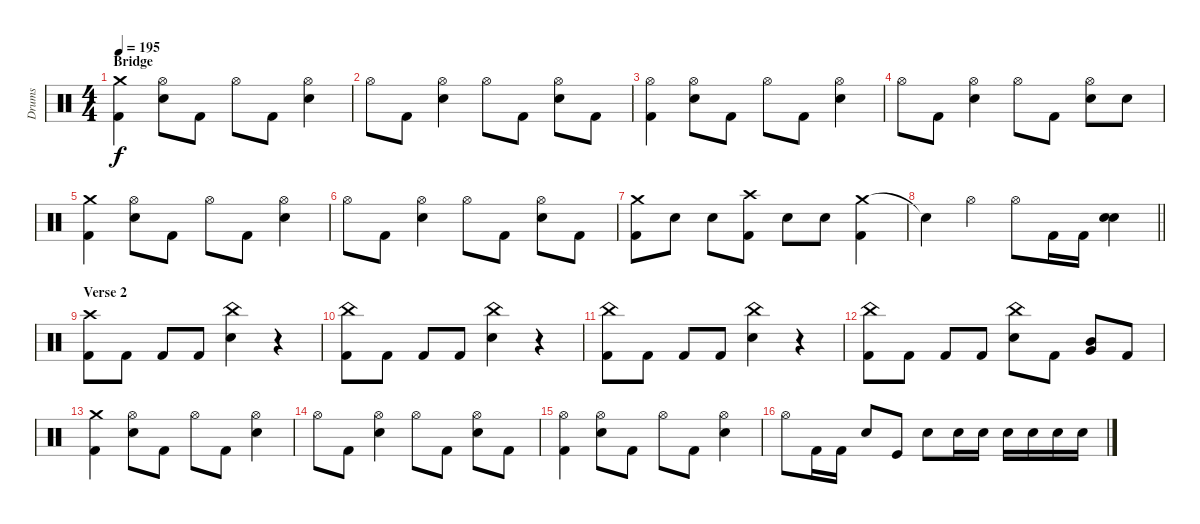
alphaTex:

\track ("Drums" "Drums") {instrument percussion}
\staff {score}
\articulation defaults
\ts (4 4)
\section ("" "Bridge")
\tempo 195
\clef neutral
\ks c
("Crash medium (hit)" "Kick (hit) 2").4{dy f} ("Hi-Hat (open)" "Snare (hit) 2").8 "Kick (hit) 2".8 "Hi-Hat (open)".8 "Kick (hit) 2".8 ("Hi-Hat (open)" "Snare (hit) 2").4 |
"Hi-Hat (open)".8 "Kick (hit) 2".8 ("Hi-Hat (open)" "Snare (hit) 2").4 "Hi-Hat (open)".8 "Kick (hit) 2".8 ("Hi-Hat (open)" "Snare (hit) 2").8 "Kick (hit) 2".8 |
("Hi-Hat (open)" "Kick (hit) 2").4 ("Hi-Hat (open)" "Snare (hit) 2").8 "Kick (hit) 2".8 "Hi-Hat (open)".8 "Kick (hit) 2".8 ("Hi-Hat (open)" "Snare (hit) 2").4 |
"Hi-Hat (open)".8 "Kick (hit) 2".8 ("Hi-Hat (open)" "Snare (hit) 2").4 "Hi-Hat (open)".8 "Kick (hit) 2".8 ("Hi-Hat (open)" "Snare (hit) 2").8 "Snare (hit) 2".8 |
("Crash medium (hit)" "Kick (hit) 2").4 ("Hi-Hat (open)" "Snare (hit) 2").8 "Kick (hit) 2".8 "Hi-Hat (open)".8 "Kick (hit) 2".8 ("Hi-Hat (open)" "Snare (hit) 2").4 |
"Hi-Hat (open)".8 "Kick (hit) 2".8 ("Hi-Hat (open)" "Snare (hit) 2").4 "Hi-Hat (open)".8 "Kick (hit) 2".8 ("Hi-Hat (open)" "Snare (hit) 2").8 "Kick (hit) 2".8 |
("Crash medium (hit)" "Kick (hit) 2").8 "Snare (hit) 2".8 "Snare (hit) 2".8 ("Crash high (hit)" "Kick (hit) 2").8 "Snare (hit) 2".8 "Snare (hit) 2".8 ("Crash medium (hit)" "Kick (hit) 2").4 |
\barLineRight lightlight "Snare (hit)"{t}.4 "Hi-Hat (open)".4 "Hi-Hat (open)".8 "Kick (hit) 2".16 "Kick (hit) 2".16
("Snare (hit) 2" "Snare (hit) 2").4 |
\section ("" "Verse 2")
("Crash high (hit)" "Kick (hit) 2").8 "Kick (hit) 2".8 "Kick (hit) 2".8 "Kick (hit) 2".8 ("China (hit)" "Snare (hit) 2").4 r.4 |
("China (hit)" "Kick (hit) 2").8 "Kick (hit) 2".8 "Kick (hit) 2".8 "Kick (hit) 2".8 ("China (hit)" "Snare (hit) 2").4 r.4 |
("China (hit)" "Kick (hit) 2").8 "Kick (hit) 2".8 "Kick (hit) 2".8 "Kick (hit) 2".8 ("China (hit)" "Snare (hit) 2").4 r.4 |
("China (hit)" "Kick (hit) 2").8 "Kick (hit) 2".8 "Kick (hit) 2".8 "Kick (hit) 2".8 ("China (hit)" "Snare (hit) 2").8 "Kick (hit) 2".8 ("Mid Tom (hit)" "Very Low Tom (hit)").8 "Kick (hit) 2".8 |
("Crash medium (hit)" "Kick (hit) 2").4 ("Hi-Hat (open)" "Snare (hit) 2").8 "Kick (hit) 2".8 "Hi-Hat (open)".8 "Kick (hit) 2".8 ("Hi-Hat (open)" "Snare (hit) 2").4 |
"Hi-Hat (open)".8 "Kick (hit) 2".8 ("Hi-Hat (open)" "Snare (hit) 2").4 "Hi-Hat (open)".8 "Kick (hit) 2".8 ("Hi-Hat (open)" "Snare (hit) 2").8 "Kick (hit) 2".8 |
("Hi-Hat (open)" "Kick (hit) 2").4 ("Hi-Hat (open)" "Snare (hit) 2").8 "Kick (hit) 2".8 "Hi-Hat (open)".8 "Kick (hit) 2".8 ("Hi-Hat (open)" "Snare (hit) 2").4 |
"Hi-Hat (open)".8 "Kick (hit) 2".16 "Kick (hit) 2".16 "Snare (hit) 2".8 "Kick (hit)".8 "Snare (hit) 2".8 "Snare (hit) 2".16 "Snare (hit) 2".16 "Snare (hit) 2".16 "Snare (hit) 2".16 "Snare (hit) 2".16 "Snare (hit) 2".16
